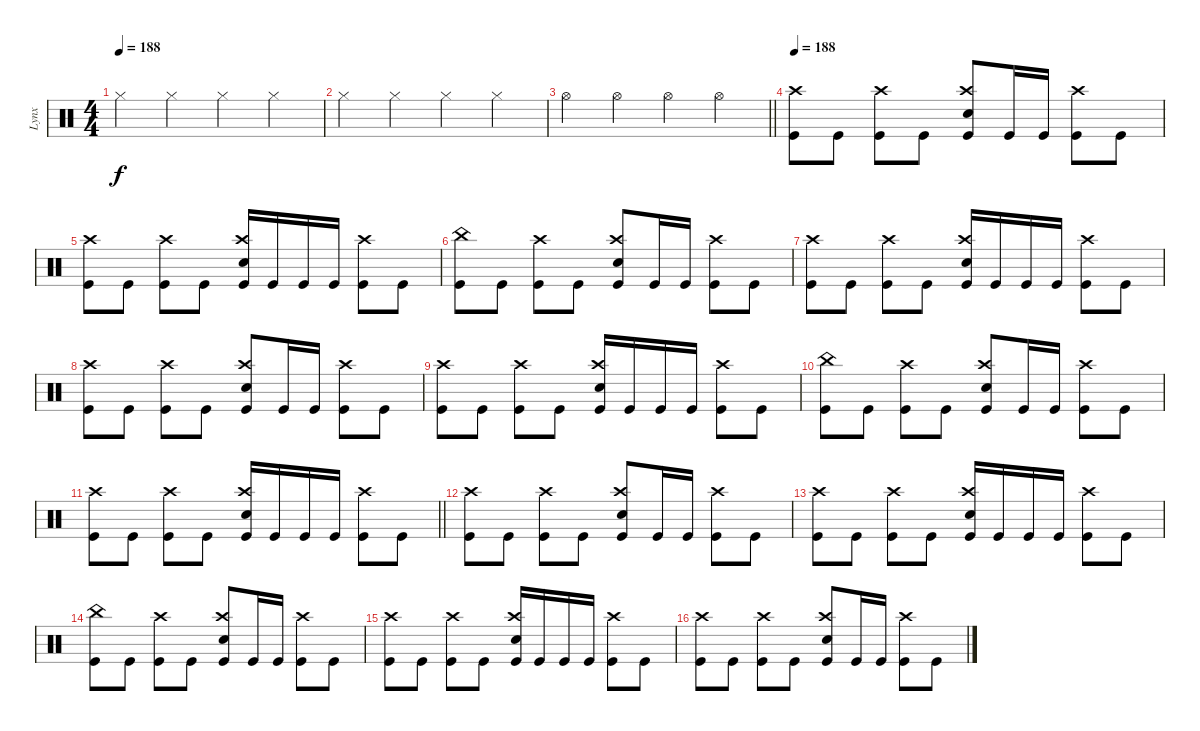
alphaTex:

\track ("Lynx" "Lynx") {instrument percussion}
\staff {score}
\articulation defaults
\ts (4 4)
\tempo 188
\clef neutral
\ks c "Hi-Hat (closed)".4{dy f} "Hi-Hat (closed)".4 "Hi-Hat (closed)".4 "Hi-Hat (closed)".4
|
"Hi-Hat (closed)".4 "Hi-Hat (closed)".4 "Hi-Hat (closed)".4 "Hi-Hat (closed)".4 |
\barLineRight lightlight "Hi-Hat (open)".4 "Hi-Hat (open)".4 "Hi-Hat (open)".4 "Hi-Hat (open)".4
|
\section ("" "")
\tempo 188
("Kick (hit)" "Crash high (hit)").8 "Kick (hit)".8 ("Kick (hit)" "Crash high (hit)").8 "Kick (hit)".8 ("Kick (hit)" "Electric Snare (hit)" "Crash high (hit)").8 "Kick (hit)".16 "Kick (hit)".16 ("Kick (hit)" "Crash high (hit)").8 "Kick (hit)".8 |
("Kick (hit)" "Crash high (hit)").8 "Kick (hit)".8 ("Kick (hit)" "Crash high (hit)").8 "Kick (hit)".8 ("Kick (hit)" "Electric Snare (hit)" "Crash high (hit)").16 "Kick (hit)".16 "Kick (hit)".16 "Kick (hit)".16 ("Kick (hit)" "Crash high (hit)").8 "Kick (hit)".8 |
("Kick (hit)" "China (hit)").8 "Kick (hit)".8 ("Kick (hit)" "Crash high (hit)").8 "Kick (hit)".8 ("Kick (hit)" "Electric Snare (hit)" "Crash high (hit)").8 "Kick (hit)".16 "Kick (hit)".16 ("Kick (hit)" "Crash high (hit)").8 "Kick (hit)".8 |
("Kick (hit)" "Crash high (hit)").8 "Kick (hit)".8 ("Kick (hit)" "Crash high (hit)").8 "Kick (hit)".8 ("Kick (hit)" "Electric Snare (hit)" "Crash high (hit)").16 "Kick (hit)".16 "Kick (hit)".16 "Kick (hit)".16 ("Kick (hit)" "Crash high (hit)").8 "Kick (hit)".8 |
("Kick (hit)" "Crash high (hit)").8 "Kick (hit)".8 ("Kick (hit)" "Crash high (hit)").8 "Kick (hit)".8 ("Kick (hit)" "Electric Snare (hit)" "Crash high (hit)").8 "Kick (hit)".16 "Kick (hit)".16 ("Kick (hit)" "Crash high (hit)").8 "Kick (hit)".8 |
("Kick (hit)" "Crash high (hit)").8 "Kick (hit)".8 ("Kick (hit)" "Crash high (hit)").8 "Kick (hit)".8 ("Kick (hit)" "Electric Snare (hit)" "Crash high (hit)").16 "Kick (hit)".16 "Kick (hit)".16 "Kick (hit)".16 ("Kick (hit)" "Crash high (hit)").8 "Kick (hit)".8 |
("Kick (hit)" "China (hit)").8 "Kick (hit)".8 ("Kick (hit)" "Crash high (hit)").8 "Kick (hit)".8 ("Kick (hit)" "Electric Snare (hit)" "Crash high (hit)").8 "Kick (hit)".16 "Kick (hit)".16 ("Kick (hit)" "Crash high (hit)").8 "Kick (hit)".8 |
\barLineRight lightlight
("Kick (hit)" "Crash high (hit)").8 "Kick (hit)".8 ("Kick (hit)" "Crash high (hit)").8 "Kick (hit)".8 ("Kick (hit)" "Electric Snare (hit)" "Crash high (hit)").16 "Kick (hit)".16 "Kick (hit)".16 "Kick (hit)".16 ("Kick (hit)" "Crash high (hit)").8 "Kick (hit)".8 |
\section ("" "")
("Kick (hit)" "Crash high (hit)").8 "Kick (hit)".8 ("Kick (hit)" "Crash high (hit)").8 "Kick (hit)".8 ("Kick (hit)" "Electric Snare (hit)" "Crash high (hit)").8 "Kick (hit)".16 "Kick (hit)".16 ("Kick (hit)" "Crash high (hit)").8 "Kick (hit)".8 |
("Kick (hit)" "Crash high (hit)").8 "Kick (hit)".8 ("Kick (hit)" "Crash high (hit)").8 "Kick (hit)".8 ("Kick (hit)" "Electric Snare (hit)" "Crash high (hit)").16 "Kick (hit)".16 "Kick (hit)".16 "Kick (hit)".16 ("Kick (hit)" "Crash high (hit)").8 "Kick (hit)".8 |
("Kick (hit)" "China (hit)").8 "Kick (hit)".8 ("Kick (hit)" "Crash high (hit)").8 "Kick (hit)".8 ("Kick (hit)" "Electric Snare (hit)" "Crash high (hit)").8 "Kick (hit)".16 "Kick (hit)".16 ("Kick (hit)" "Crash high (hit)").8 "Kick (hit)".8 |
("Kick (hit)" "Crash high (hit)").8 "Kick (hit)".8 ("Kick (hit)" "Crash high (hit)").8 "Kick (hit)".8 ("Kick (hit)" "Electric Snare (hit)" "Crash high (hit)").16 "Kick (hit)".16 "Kick (hit)".16 "Kick (hit)".16 ("Kick (hit)" "Crash high (hit)").8 "Kick (hit)".8 |
("Kick (hit)" "Crash high (hit)").8 "Kick (hit)".8 ("Kick (hit)" "Crash high (hit)").8 "Kick (hit)".8 ("Kick (hit)" "Electric Snare (hit)" "Crash high (hit)").8 "Kick (hit)".16 "Kick (hit)".16 ("Kick (hit)" "Crash high (hit)").8 "Kick (hit)".8
